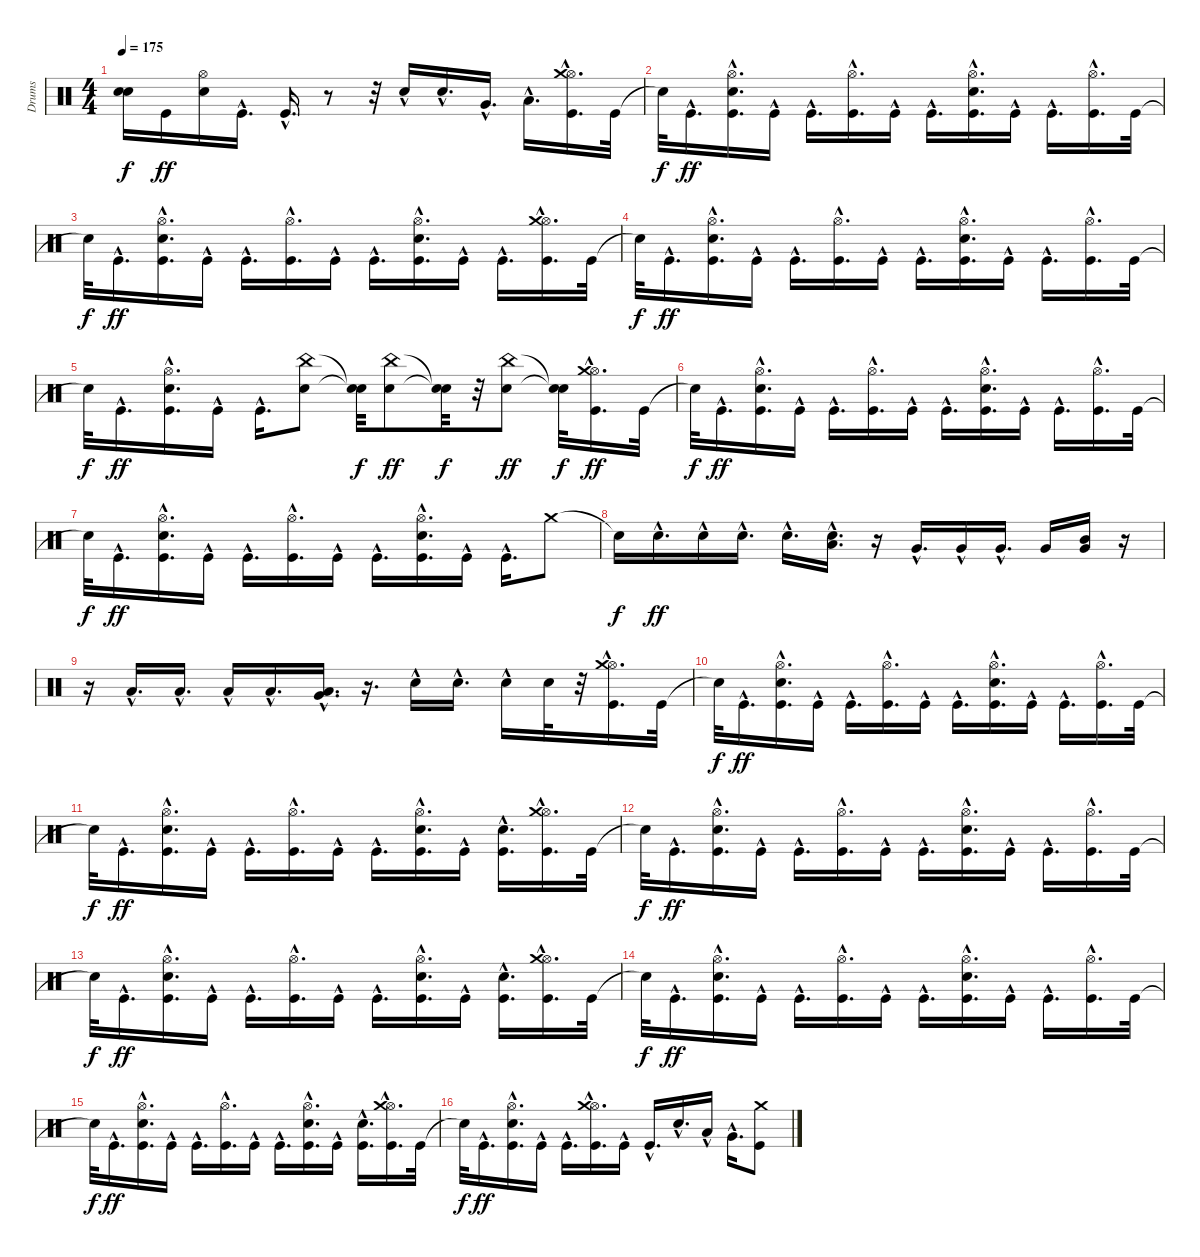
\track ("Drums" "Drums") {instrument percussion}
\staff {score}
\articulation defaults
\ts (4 4)
\tempo 175
\clef neutral
\ks c
("Snare (hit)"{t} "Snare (hit)"{t}).16{dy f} "Kick (hit)".16{dy ff} ("Electric Snare (hit)" "Hi-Hat (open)").16 "Kick (hit)"{hac}.16{d} "Kick (hit)"{hac}.16{d} r.8 r.32 "Electric Snare (hit)"{hac}.16 "Electric Snare (hit)"{hac}.16{d} "Very Low Tom (hit)"{hac}.16{d} "Low Floor Tom (hit)"{hac}.16{d} ("Kick (hit)"{hac} "Hi-Hat (open)"{hac} "Crash medium (hit)"{hac}).16{d} "Kick (hit)".32 |
"Snare (hit)"{t}.32{dy f} "Kick (hit)"{hac}.16{d dy ff} ("Kick (hit)"{hac} "Electric Snare (hit)"{hac} "Hi-Hat (open)"{hac}).16{d} "Kick (hit)"{hac}.16 "Kick (hit)"{hac}.16{d} ("Kick (hit)"{hac} "Hi-Hat (open)"{hac}).16{d} "Kick (hit)"{hac}.16 "Kick (hit)"{hac}.16{d} ("Kick (hit)"{hac} "Electric Snare (hit)"{hac} "Hi-Hat (open)"{hac}).16{d} "Kick (hit)"{hac}.16 "Kick (hit)"{hac}.16{d} ("Kick (hit)"{hac} "Hi-Hat (open)"{hac}).16{d} "Kick (hit)".32 |
"Snare (hit)"{t}.32{dy f} "Kick (hit)"{hac}.16{d dy ff} ("Kick (hit)"{hac} "Electric Snare (hit)"{hac} "Hi-Hat (open)"{hac}).16{d} "Kick (hit)"{hac}.16 "Kick (hit)"{hac}.16{d} ("Kick (hit)"{hac} "Hi-Hat (open)"{hac}).16{d} "Kick (hit)"{hac}.16 "Kick (hit)"{hac}.16{d} ("Kick (hit)"{hac} "Electric Snare (hit)"{hac} "Hi-Hat (open)"{hac}).16{d} "Kick (hit)"{hac}.16 "Kick (hit)"{hac}.16{d} ("Kick (hit)"{hac} "Hi-Hat (open)"{hac} "Crash medium (hit)"{hac}).16{d} "Kick (hit)".32 |
"Snare (hit)"{t}.32{dy f} "Kick (hit)"{hac}.16{d dy ff} ("Kick (hit)"{hac} "Electric Snare (hit)"{hac} "Hi-Hat (open)"{hac}).16{d} "Kick (hit)"{hac}.16 "Kick (hit)"{hac}.16{d} ("Kick (hit)"{hac} "Hi-Hat (open)"{hac}).16{d} "Kick (hit)"{hac}.16 "Kick (hit)"{hac}.16{d} ("Kick (hit)"{hac} "Electric Snare (hit)"{hac} "Hi-Hat (open)"{hac}).16{d} "Kick (hit)"{hac}.16 "Kick (hit)"{hac}.16{d} ("Kick (hit)"{hac} "Hi-Hat (open)"{hac}).16{d} "Kick (hit)".32 |
"Snare (hit)"{t}.32{dy f} "Kick (hit)"{hac}.16{d dy ff} ("Kick (hit)"{hac} "Electric Snare (hit)"{hac} "Hi-Hat (open)"{hac}).16{d} "Kick (hit)"{hac}.16 "Kick (hit)"{hac}.16{d} ("Electric Snare (hit)" "China (hit)").8 ("Snare (hit)"{t} "Snare (hit)"{t}).32{dy f} ("Electric Snare (hit)" "China (hit)").8{dy ff} ("Snare (hit)"{t} "Snare (hit)"{t}).32{dy f} r.32 ("Electric Snare (hit)" "China (hit)").8{dy ff} ("Snare (hit)"{t} "Snare (hit)"{t}).32{dy f} ("Kick (hit)"{hac} "Hi-Hat (open)"{hac} "Crash medium (hit)"{hac}).16{d dy ff} "Kick (hit)".32 |
"Snare (hit)"{t}.32{dy f} "Kick (hit)"{hac}.16{d dy ff} ("Kick (hit)"{hac} "Electric Snare (hit)"{hac} "Hi-Hat (open)"{hac}).16{d} "Kick (hit)"{hac}.16 "Kick (hit)"{hac}.16{d} ("Kick (hit)"{hac} "Hi-Hat (open)"{hac}).16{d} "Kick (hit)"{hac}.16 "Kick (hit)"{hac}.16{d} ("Kick (hit)"{hac} "Electric Snare (hit)"{hac} "Hi-Hat (open)"{hac}).16{d} "Kick (hit)"{hac}.16 "Kick (hit)"{hac}.16{d} ("Kick (hit)"{hac} "Hi-Hat (open)"{hac}).16{d} "Kick (hit)".32 |
"Snare (hit)"{t}.32{dy f} "Kick (hit)"{hac}.16{d dy ff} ("Kick (hit)"{hac} "Electric Snare (hit)"{hac} "Hi-Hat (open)"{hac}).16{d} "Kick (hit)"{hac}.16 "Kick (hit)"{hac}.16{d} ("Kick (hit)"{hac} "Hi-Hat (open)"{hac}).16{d} "Kick (hit)"{hac}.16 "Kick (hit)"{hac}.16{d} ("Kick (hit)"{hac} "Electric Snare (hit)"{hac} "Hi-Hat (open)"{hac}).16{d} "Kick (hit)"{hac}.16 "Kick (hit)"{hac}.16{d} "Crash medium (hit)".8 |
"Snare (hit)"{t}.16{dy f} "Electric Snare (hit)"{hac}.16{d dy ff} "Electric Snare (hit)"{hac}.16 "Electric Snare (hit)"{hac}.16{d} "Electric Snare (hit)"{hac}.16{d} ("Electric Snare (hit)"{hac} "Low Tom (hit)"{hac}).16{d} r.16 "Very Low Tom (hit)"{hac}.16{d} "Very Low Tom (hit)"{hac}.16 "Very Low Tom (hit)"{hac}.16{d} "Very Low Tom (hit)".16 ("Very Low Tom (hit)" "Mid Tom (hit)").16 r.16 |
r.16 "Low Floor Tom (hit)"{hac}.16{d} "Low Floor Tom (hit)"{hac}.16{d} "Low Floor Tom (hit)"{hac}.16 "Low Floor Tom (hit)"{hac}.16{d} ("Low Floor Tom (hit)"{hac} "Very Low Tom (hit)"{hac}).16{d} r.16{d} "Electric Snare (hit)"{hac}.16 "Electric Snare (hit)"{hac}.16{d} "Electric Snare (hit)"{hac}.16 "Electric Snare (hit)".32 r.32 ("Kick (hit)"{hac} "Hi-Hat (open)"{hac} "Crash medium (hit)"{hac}).16{d} "Kick (hit)".32 |
"Snare (hit)"{t}.32{dy f} "Kick (hit)"{hac}.16{d dy ff} ("Kick (hit)"{hac} "Electric Snare (hit)"{hac} "Hi-Hat (open)"{hac}).16{d} "Kick (hit)"{hac}.16 "Kick (hit)"{hac}.16{d} ("Kick (hit)"{hac} "Hi-Hat (open)"{hac}).16{d} "Kick (hit)"{hac}.16 "Kick (hit)"{hac}.16{d} ("Kick (hit)"{hac} "Electric Snare (hit)"{hac} "Hi-Hat (open)"{hac}).16{d} "Kick (hit)"{hac}.16 "Kick (hit)"{hac}.16{d} ("Kick (hit)"{hac} "Hi-Hat (open)"{hac}).16{d} "Kick (hit)".32 |
"Snare (hit)"{t}.32{dy f} "Kick (hit)"{hac}.16{d dy ff} ("Kick (hit)"{hac} "Electric Snare (hit)"{hac} "Hi-Hat (open)"{hac}).16{d} "Kick (hit)"{hac}.16 "Kick (hit)"{hac}.16{d} ("Kick (hit)"{hac} "Hi-Hat (open)"{hac}).16{d} "Kick (hit)"{hac}.16 "Kick (hit)"{hac}.16{d} ("Kick (hit)"{hac} "Electric Snare (hit)"{hac} "Hi-Hat (open)"{hac}).16{d} "Kick (hit)"{hac}.16 ("Kick (hit)"{hac} "Electric Snare (hit)"{hac}).16{d} ("Kick (hit)"{hac} "Hi-Hat (open)"{hac} "Crash medium (hit)"{hac}).16{d} "Kick (hit)".32 |
"Snare (hit)"{t}.32{dy f} "Kick (hit)"{hac}.16{d dy ff} ("Kick (hit)"{hac} "Electric Snare (hit)"{hac} "Hi-Hat (open)"{hac}).16{d} "Kick (hit)"{hac}.16 "Kick (hit)"{hac}.16{d} ("Kick (hit)"{hac} "Hi-Hat (open)"{hac}).16{d} "Kick (hit)"{hac}.16 "Kick (hit)"{hac}.16{d} ("Kick (hit)"{hac} "Electric Snare (hit)"{hac} "Hi-Hat (open)"{hac}).16{d} "Kick (hit)"{hac}.16 "Kick (hit)"{hac}.16{d} ("Kick (hit)"{hac} "Hi-Hat (open)"{hac}).16{d} "Kick (hit)".32 |
"Snare (hit)"{t}.32{dy f} "Kick (hit)"{hac}.16{d dy ff} ("Kick (hit)"{hac} "Electric Snare (hit)"{hac} "Hi-Hat (open)"{hac}).16{d} "Kick (hit)"{hac}.16 "Kick (hit)"{hac}.16{d} ("Kick (hit)"{hac} "Hi-Hat (open)"{hac}).16{d} "Kick (hit)"{hac}.16 "Kick (hit)"{hac}.16{d} ("Kick (hit)"{hac} "Electric Snare (hit)"{hac} "Hi-Hat (open)"{hac}).16{d} "Kick (hit)"{hac}.16 ("Kick (hit)"{hac} "Electric Snare (hit)"{hac}).16{d} ("Kick (hit)"{hac} "Hi-Hat (open)"{hac} "Crash medium (hit)"{hac}).16{d} "Kick (hit)".32 |
"Snare (hit)"{t}.32{dy f} "Kick (hit)"{hac}.16{d dy ff} ("Kick (hit)"{hac} "Electric Snare (hit)"{hac} "Hi-Hat (open)"{hac}).16{d} "Kick (hit)"{hac}.16 "Kick (hit)"{hac}.16{d} ("Kick (hit)"{hac} "Hi-Hat (open)"{hac}).16{d} "Kick (hit)"{hac}.16 "Kick (hit)"{hac}.16{d} ("Kick (hit)"{hac} "Electric Snare (hit)"{hac} "Hi-Hat (open)"{hac}).16{d} "Kick (hit)"{hac}.16 "Kick (hit)"{hac}.16{d} ("Kick (hit)"{hac} "Hi-Hat (open)"{hac}).16{d} "Kick (hit)".32 |
"Snare (hit)"{t}.32{dy f} "Kick (hit)"{hac}.16{d dy ff} ("Kick (hit)"{hac} "Electric Snare (hit)"{hac} "Hi-Hat (open)"{hac}).16{d} "Kick (hit)"{hac}.16 "Kick (hit)"{hac}.16{d} ("Kick (hit)"{hac} "Hi-Hat (open)"{hac}).16{d} "Kick (hit)"{hac}.16 "Kick (hit)"{hac}.16{d} ("Kick (hit)"{hac} "Electric Snare (hit)"{hac} "Hi-Hat (open)"{hac}).16{d} "Kick (hit)"{hac}.16 ("Kick (hit)"{hac} "Electric Snare (hit)"{hac}).16{d} ("Kick (hit)"{hac} "Hi-Hat (open)"{hac} "Crash medium (hit)"{hac}).16{d} "Kick (hit)".32 |
"Snare (hit)"{t}.32{dy f} "Kick (hit)"{hac}.16{d dy ff} ("Kick (hit)"{hac} "Electric Snare (hit)"{hac} "Hi-Hat (open)"{hac}).16{d} "Kick (hit)"{hac}.16 "Kick (hit)"{hac}.16{d} ("Kick (hit)"{hac} "Hi-Hat (open)"{hac} "Crash medium (hit)"{hac}).16{d} "Kick (hit)"{hac}.16 "Kick (hit)"{hac}.16{d} "Electric Snare (hit)"{hac}.16{d} "Low Tom (hit)"{hac}.16 "Very Low Tom (hit)"{hac}.16{d} ("Kick (hit)" "Crash medium (hit)").8
